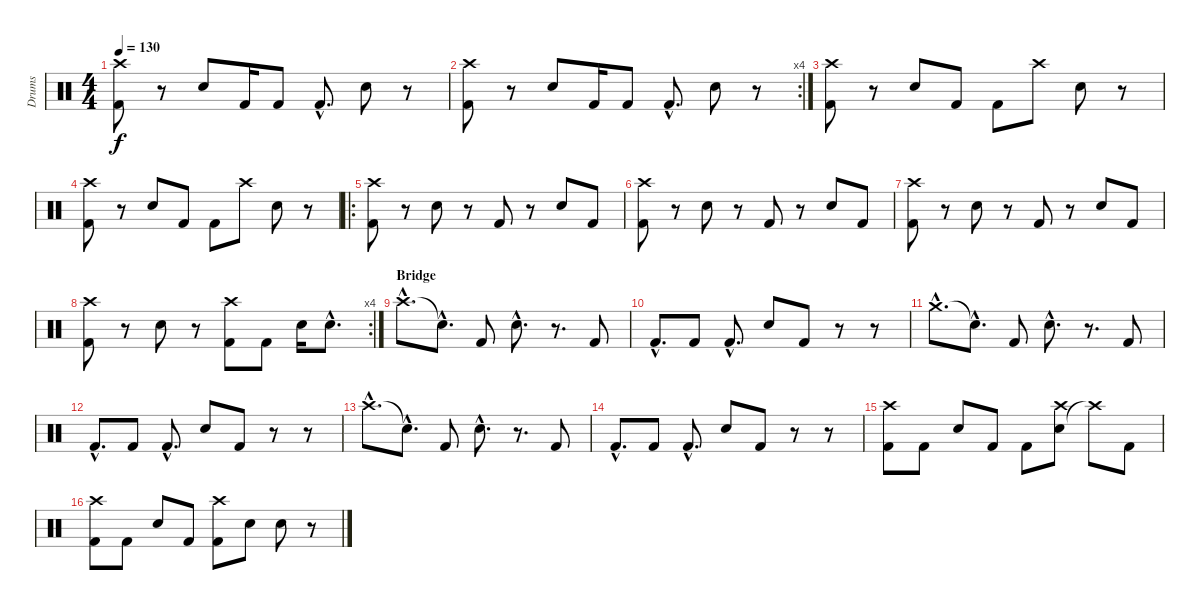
\track ("Drums" "Drums") {instrument percussion}
\staff {score}
\articulation defaults
\ts (4 4)
\tempo 130
\clef neutral
\ks c
("Kick (hit) 2" "Crash high (hit)").8{dy f} r.8 "Electric Snare (hit)".8 "Kick (hit) 2".16 "Kick (hit) 2".8 "Kick (hit) 2"{hac}.8{d} "Electric Snare (hit)".8 r.8 |
\rc 4
("Kick (hit) 2" "Crash high (hit)").8 r.8 "Electric Snare (hit)".8 "Kick (hit) 2".16 "Kick (hit) 2".8 "Kick (hit) 2"{hac}.8{d} "Electric Snare (hit)".8 r.8 |
("Kick (hit) 2" "Crash high (hit)").8 r.8 "Electric Snare (hit)".8 "Kick (hit) 2".8 "Kick (hit) 2".8 "Crash high (hit)".8 "Electric Snare (hit)".8 r.8 |
("Kick (hit) 2" "Crash high (hit)").8 r.8 "Electric Snare (hit)".8 "Kick (hit) 2".8 "Kick (hit) 2".8 "Crash high (hit)".8 "Electric Snare (hit)".8 r.8 |
\ro
("Kick (hit) 2" "Crash high (hit)").8{volume 14} r.8 "Electric Snare (hit)".8 r.8 "Kick (hit) 2".8 r.8 "Electric Snare (hit)".8 "Kick (hit) 2".8 |
("Kick (hit) 2" "Crash high (hit)").8 r.8 "Electric Snare (hit)".8 r.8 "Kick (hit) 2".8 r.8 "Electric Snare (hit)".8 "Kick (hit) 2".8 |
("Kick (hit) 2" "Crash high (hit)").8 r.8 "Electric Snare (hit)".8 r.8 "Kick (hit) 2".8 r.8 "Electric Snare (hit)".8 "Kick (hit) 2".8 |
\rc 4
("Kick (hit) 2" "Crash high (hit)").8 r.8 "Electric Snare (hit)".8 r.8 ("Kick (hit) 2" "Crash high (hit)").8 "Kick (hit) 2".8 "Electric Snare (hit)".16 "Electric Snare (hit)"{hac}.8{d} |
\section ("" "Bridge")
"Crash high (hit)"{hac}.8{d} "Snare (hit)"{hac t}.8{d} "Kick (hit) 2".8 "Electric Snare (hit)"{hac}.8{d} r.8{d} "Kick (hit) 2".8 |
"Kick (hit) 2"{hac}.8{d} "Kick (hit) 2".8 "Kick (hit) 2"{hac}.8{d} "Electric Snare (hit)".8 "Kick (hit) 2".8 r.8 r.8 |
"Crash medium (hit)"{hac}.8{d} "Snare (hit)"{hac t}.8{d} "Kick (hit) 2".8 "Electric Snare (hit)"{hac}.8{d} r.8{d} "Kick (hit) 2".8 |
"Kick (hit) 2"{hac}.8{d} "Kick (hit) 2".8 "Kick (hit) 2"{hac}.8{d} "Electric Snare (hit)".8 "Kick (hit) 2".8 r.8 r.8 |
"Crash high (hit)"{hac}.8{d} "Snare (hit)"{hac t}.8{d} "Kick (hit) 2".8 "Electric Snare (hit)"{hac}.8{d} r.8{d} "Kick (hit) 2".8 |
"Kick (hit) 2"{hac}.8{d} "Kick (hit) 2".8 "Kick (hit) 2"{hac}.8{d} "Electric Snare (hit)".8 "Kick (hit) 2".8 r.8 r.8 |
("Kick (hit) 2" "Crash high (hit)").8 "Kick (hit) 2".8 "Electric Snare (hit)".8 "Kick (hit) 2".8 "Kick (hit) 2".8 ("Electric Snare (hit)" "Crash high (hit)").8 "Crash high (hit)"{t}.8 "Kick (hit) 2".8 |
("Kick (hit) 2" "Crash high (hit)").8 "Kick (hit) 2".8 "Electric Snare (hit)".8 "Kick (hit) 2".8 ("Kick (hit) 2" "Crash high (hit)").8 "Electric Snare (hit)".8 "Electric Snare (hit)".8 r.8
